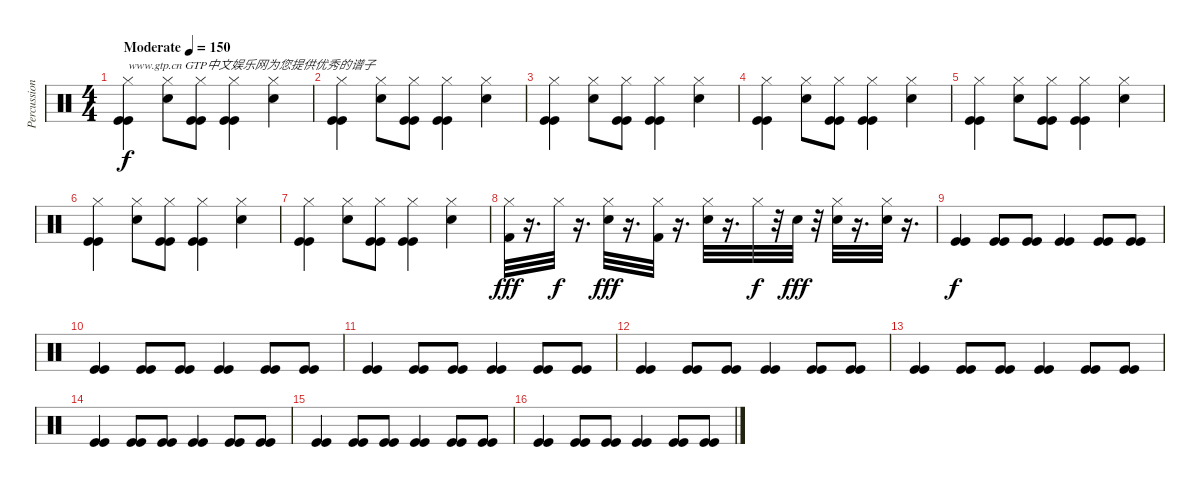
\track ("Percussion" "Percussion") {instrument percussion}
\staff {score}
\articulation defaults
\ts (4 4)
\tempo (150 "Moderate")
\clef neutral
\ks c
("Kick (hit)" "Kick (hit)" "Hi-Hat (closed)").4{txt "www.gtp.cn GTP中文娱乐网为您提供优秀的谱子" dy f} ("Snare (hit) 2" "Hi-Hat (closed)").8 ("Kick (hit)" "Kick (hit)" "Hi-Hat (closed)").8 ("Kick (hit)" "Kick (hit)" "Hi-Hat (closed)").4 ("Snare (hit) 2" "Hi-Hat (closed)").4 |
("Kick (hit)" "Kick (hit)" "Hi-Hat (closed)").4 ("Snare (hit) 2" "Hi-Hat (closed)").8 ("Kick (hit)" "Kick (hit)" "Hi-Hat (closed)").8 ("Kick (hit)" "Kick (hit)" "Hi-Hat (closed)").4 ("Snare (hit) 2" "Hi-Hat (closed)").4 |
("Kick (hit)" "Kick (hit)" "Hi-Hat (closed)").4 ("Snare (hit) 2" "Hi-Hat (closed)").8 ("Kick (hit)" "Kick (hit)" "Hi-Hat (closed)").8 ("Kick (hit)" "Kick (hit)" "Hi-Hat (closed)").4 ("Snare (hit) 2" "Hi-Hat (closed)").4 |
("Kick (hit)" "Kick (hit)" "Hi-Hat (closed)").4 ("Snare (hit) 2" "Hi-Hat (closed)").8 ("Kick (hit)" "Kick (hit)" "Hi-Hat (closed)").8 ("Kick (hit)" "Kick (hit)" "Hi-Hat (closed)").4 ("Snare (hit) 2" "Hi-Hat (closed)").4 |
("Kick (hit)" "Kick (hit)" "Hi-Hat (closed)").4 ("Snare (hit) 2" "Hi-Hat (closed)").8 ("Kick (hit)" "Kick (hit)" "Hi-Hat (closed)").8 ("Kick (hit)" "Kick (hit)" "Hi-Hat (closed)").4 ("Snare (hit) 2" "Hi-Hat (closed)").4 |
("Kick (hit)" "Kick (hit)" "Hi-Hat (closed)").4 ("Snare (hit) 2" "Hi-Hat (closed)").8 ("Kick (hit)" "Kick (hit)" "Hi-Hat (closed)").8 ("Kick (hit)" "Kick (hit)" "Hi-Hat (closed)").4 ("Snare (hit) 2" "Hi-Hat (closed)").4 |
("Kick (hit)" "Kick (hit)" "Hi-Hat (closed)").4 ("Snare (hit) 2" "Hi-Hat (closed)").8 ("Kick (hit)" "Kick (hit)" "Hi-Hat (closed)").8 ("Kick (hit)" "Kick (hit)" "Hi-Hat (closed)").4 ("Snare (hit) 2" "Hi-Hat (closed)").4 |
("Kick (hit) 2" "Hi-Hat (closed)").32{dy fff} r.16{d} "Hi-Hat (closed)".32{dy f} r.16{d} ("Hi-Hat (closed)" "Electric Snare (hit)").32{dy fff} r.16{d} ("Kick (hit) 2" "Hi-Hat (closed)").32 r.16{d} ("Electric Snare (hit)" "Hi-Hat (closed)").32 r.16{d} "Hi-Hat (closed)".32{dy f} r.32 "Electric Snare (hit)".32{dy fff} r.32 ("Hi-Hat (closed)" "Electric Snare (hit)").32 r.16{d} ("Hi-Hat (closed)" "Electric Snare (hit)").32 r.16{d} |
("Kick (hit)" "Kick (hit)").4{dy f} ("Kick (hit)" "Kick (hit)").8 ("Kick (hit)" "Kick (hit)").8 ("Kick (hit)" "Kick (hit)").4 ("Kick (hit)" "Kick (hit)").8 ("Kick (hit)" "Kick (hit)").8 |
("Kick (hit)" "Kick (hit)").4 ("Kick (hit)" "Kick (hit)").8 ("Kick (hit)" "Kick (hit)").8 ("Kick (hit)" "Kick (hit)").4 ("Kick (hit)" "Kick (hit)").8 ("Kick (hit)" "Kick (hit)").8 |
("Kick (hit)" "Kick (hit)").4 ("Kick (hit)" "Kick (hit)").8 ("Kick (hit)" "Kick (hit)").8 ("Kick (hit)" "Kick (hit)").4 ("Kick (hit)" "Kick (hit)").8 ("Kick (hit)" "Kick (hit)").8 |
("Kick (hit)" "Kick (hit)").4 ("Kick (hit)" "Kick (hit)").8 ("Kick (hit)" "Kick (hit)").8 ("Kick (hit)" "Kick (hit)").4 ("Kick (hit)" "Kick (hit)").8 ("Kick (hit)" "Kick (hit)").8 |
("Kick (hit)" "Kick (hit)").4 ("Kick (hit)" "Kick (hit)").8 ("Kick (hit)" "Kick (hit)").8 ("Kick (hit)" "Kick (hit)").4 ("Kick (hit)" "Kick (hit)").8 ("Kick (hit)" "Kick (hit)").8 |
("Kick (hit)" "Kick (hit)").4 ("Kick (hit)" "Kick (hit)").8 ("Kick (hit)" "Kick (hit)").8 ("Kick (hit)" "Kick (hit)").4 ("Kick (hit)" "Kick (hit)").8 ("Kick (hit)" "Kick (hit)").8 |
("Kick (hit)" "Kick (hit)").4 ("Kick (hit)" "Kick (hit)").8 ("Kick (hit)" "Kick (hit)").8 ("Kick (hit)" "Kick (hit)").4 ("Kick (hit)" "Kick (hit)").8 ("Kick (hit)" "Kick (hit)").8 |
("Kick (hit)" "Kick (hit)").4 ("Kick (hit)" "Kick (hit)").8 ("Kick (hit)" "Kick (hit)").8 ("Kick (hit)" "Kick (hit)").4 ("Kick (hit)" "Kick (hit)").8 ("Kick (hit)" "Kick (hit)").8
